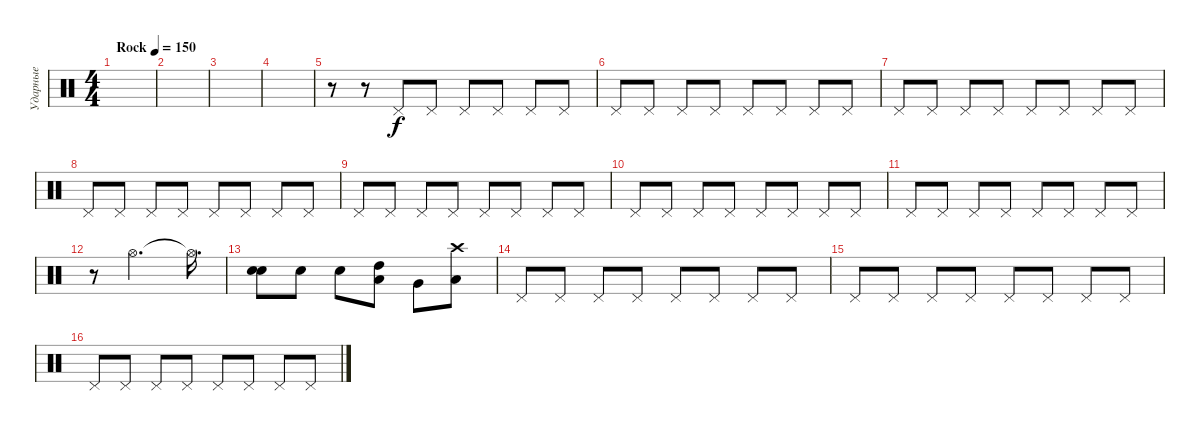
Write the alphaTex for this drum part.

\track ("Ударные" "Ударные") {instrument percussion}
\staff {score}
\articulation defaults
\ts (4 4)
\tempo (150 "Rock")
\clef neutral
\ks c
|
|
|
|
r.8 r.8 "Pedal Hi-Hat (hit)".8 "Pedal Hi-Hat (hit)".8 "Pedal Hi-Hat (hit)".8 "Pedal Hi-Hat (hit)".8 "Pedal Hi-Hat (hit)".8 "Pedal Hi-Hat (hit)".8 |
"Pedal Hi-Hat (hit)".8 "Pedal Hi-Hat (hit)".8 "Pedal Hi-Hat (hit)".8 "Pedal Hi-Hat (hit)".8 "Pedal Hi-Hat (hit)".8 "Pedal Hi-Hat (hit)".8 "Pedal Hi-Hat (hit)".8 "Pedal Hi-Hat (hit)".8 |
"Pedal Hi-Hat (hit)".8 "Pedal Hi-Hat (hit)".8 "Pedal Hi-Hat (hit)".8 "Pedal Hi-Hat (hit)".8 "Pedal Hi-Hat (hit)".8 "Pedal Hi-Hat (hit)".8 "Pedal Hi-Hat (hit)".8 "Pedal Hi-Hat (hit)".8 |
"Pedal Hi-Hat (hit)".8 "Pedal Hi-Hat (hit)".8 "Pedal Hi-Hat (hit)".8 "Pedal Hi-Hat (hit)".8 "Pedal Hi-Hat (hit)".8 "Pedal Hi-Hat (hit)".8 "Pedal Hi-Hat (hit)".8 "Pedal Hi-Hat (hit)".8 |
"Pedal Hi-Hat (hit)".8 "Pedal Hi-Hat (hit)".8 "Pedal Hi-Hat (hit)".8 "Pedal Hi-Hat (hit)".8 "Pedal Hi-Hat (hit)".8 "Pedal Hi-Hat (hit)".8 "Pedal Hi-Hat (hit)".8 "Pedal Hi-Hat (hit)".8 |
"Pedal Hi-Hat (hit)".8 "Pedal Hi-Hat (hit)".8 "Pedal Hi-Hat (hit)".8 "Pedal Hi-Hat (hit)".8 "Pedal Hi-Hat (hit)".8 "Pedal Hi-Hat (hit)".8 "Pedal Hi-Hat (hit)".8 "Pedal Hi-Hat (hit)".8 |
"Pedal Hi-Hat (hit)".8 "Pedal Hi-Hat (hit)".8 "Pedal Hi-Hat (hit)".8 "Pedal Hi-Hat (hit)".8 "Pedal Hi-Hat (hit)".8 "Pedal Hi-Hat (hit)".8 "Pedal Hi-Hat (hit)".8 "Pedal Hi-Hat (hit)".8 |
r.8 "Hi-Hat (open)".2{d} "Hi-Hat (open)"{t}.16{d} |
("Snare (hit) 2" "Snare (hit) 2").8 "Snare (hit) 2".8 "Snare (hit) 2".8 ("High Tom (hit)" "Low Tom (hit)").8 "Very Low Tom (hit)".8 ("Low Floor Tom (hit)" "Crash high (hit)").8 |
"Pedal Hi-Hat (hit)".8 "Pedal Hi-Hat (hit)".8 "Pedal Hi-Hat (hit)".8 "Pedal Hi-Hat (hit)".8 "Pedal Hi-Hat (hit)".8 "Pedal Hi-Hat (hit)".8 "Pedal Hi-Hat (hit)".8 "Pedal Hi-Hat (hit)".8 |
"Pedal Hi-Hat (hit)".8 "Pedal Hi-Hat (hit)".8 "Pedal Hi-Hat (hit)".8 "Pedal Hi-Hat (hit)".8 "Pedal Hi-Hat (hit)".8 "Pedal Hi-Hat (hit)".8 "Pedal Hi-Hat (hit)".8 "Pedal Hi-Hat (hit)".8 |
"Pedal Hi-Hat (hit)".8 "Pedal Hi-Hat (hit)".8 "Pedal Hi-Hat (hit)".8 "Pedal Hi-Hat (hit)".8 "Pedal Hi-Hat (hit)".8 "Pedal Hi-Hat (hit)".8 "Pedal Hi-Hat (hit)".8 "Pedal Hi-Hat (hit)".8
